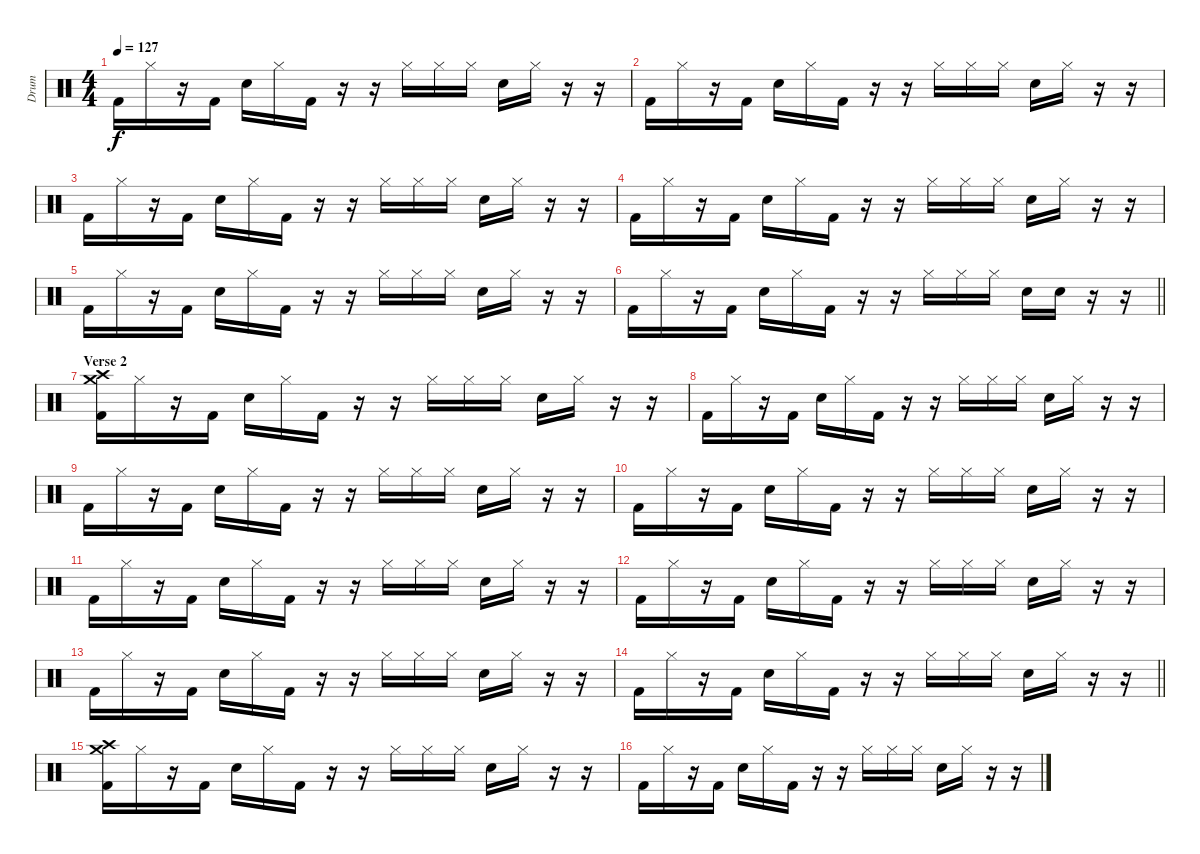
\track ("Drum" "Drum") {instrument percussion}
\staff {score}
\articulation defaults
\ts (4 4)
\tempo 127
\clef neutral
\ks c "Kick (hit) 2".16{dy f} "Hi-Hat (closed)".16
r.16 "Kick (hit) 2".16 "Electric Snare (hit)".16 "Hi-Hat (closed)".16 "Kick (hit) 2".16 r.16 r.16 "Hi-Hat (closed)".16 "Hi-Hat (closed)".16 "Hi-Hat (closed)".16 "Electric Snare (hit)".16 "Hi-Hat (closed)".16 r.16 r.16 |
"Kick (hit) 2".16 "Hi-Hat (closed)".16 r.16 "Kick (hit) 2".16 "Electric Snare (hit)".16 "Hi-Hat (closed)".16 "Kick (hit) 2".16 r.16 r.16 "Hi-Hat (closed)".16 "Hi-Hat (closed)".16 "Hi-Hat (closed)".16 "Electric Snare (hit)".16 "Hi-Hat (closed)".16 r.16 r.16 |
"Kick (hit) 2".16 "Hi-Hat (closed)".16 r.16 "Kick (hit) 2".16 "Electric Snare (hit)".16 "Hi-Hat (closed)".16 "Kick (hit) 2".16 r.16 r.16 "Hi-Hat (closed)".16 "Hi-Hat (closed)".16 "Hi-Hat (closed)".16 "Electric Snare (hit)".16 "Hi-Hat (closed)".16 r.16 r.16 |
"Kick (hit) 2".16 "Hi-Hat (closed)".16 r.16 "Kick (hit) 2".16 "Electric Snare (hit)".16 "Hi-Hat (closed)".16 "Kick (hit) 2".16 r.16 r.16 "Hi-Hat (closed)".16 "Hi-Hat (closed)".16 "Hi-Hat (closed)".16 "Electric Snare (hit)".16 "Hi-Hat (closed)".16 r.16 r.16 |
"Kick (hit) 2".16 "Hi-Hat (closed)".16 r.16 "Kick (hit) 2".16 "Electric Snare (hit)".16 "Hi-Hat (closed)".16 "Kick (hit) 2".16 r.16 r.16 "Hi-Hat (closed)".16 "Hi-Hat (closed)".16 "Hi-Hat (closed)".16 "Electric Snare (hit)".16 "Hi-Hat (closed)".16 r.16 r.16 |
\barLineRight lightlight "Kick (hit) 2".16 "Hi-Hat (closed)".16
r.16 "Kick (hit) 2".16 "Electric Snare (hit)".16 "Hi-Hat (closed)".16 "Kick (hit) 2".16 r.16 r.16 "Hi-Hat (closed)".16 "Hi-Hat (closed)".16 "Hi-Hat (closed)".16 "Electric Snare (hit)".16 "Electric Snare (hit)".16 r.16 r.16 |
\section ("" "Verse 2")
("Crash medium (hit)" "Crash high (hit)" "Kick (hit) 2").16 "Hi-Hat (closed)".16 r.16 "Kick (hit) 2".16 "Electric Snare (hit)".16 "Hi-Hat (closed)".16 "Kick (hit) 2".16 r.16 r.16 "Hi-Hat (closed)".16 "Hi-Hat (closed)".16 "Hi-Hat (closed)".16 "Electric Snare (hit)".16 "Hi-Hat (closed)".16 r.16 r.16 |
"Kick (hit) 2".16 "Hi-Hat (closed)".16 r.16 "Kick (hit) 2".16 "Electric Snare (hit)".16 "Hi-Hat (closed)".16 "Kick (hit) 2".16 r.16 r.16 "Hi-Hat (closed)".16 "Hi-Hat (closed)".16 "Hi-Hat (closed)".16 "Electric Snare (hit)".16 "Hi-Hat (closed)".16 r.16 r.16 |
"Kick (hit) 2".16 "Hi-Hat (closed)".16 r.16 "Kick (hit) 2".16 "Electric Snare (hit)".16 "Hi-Hat (closed)".16 "Kick (hit) 2".16 r.16 r.16 "Hi-Hat (closed)".16 "Hi-Hat (closed)".16 "Hi-Hat (closed)".16 "Electric Snare (hit)".16 "Hi-Hat (closed)".16 r.16 r.16 |
"Kick (hit) 2".16 "Hi-Hat (closed)".16 r.16 "Kick (hit) 2".16 "Electric Snare (hit)".16 "Hi-Hat (closed)".16 "Kick (hit) 2".16 r.16 r.16 "Hi-Hat (closed)".16 "Hi-Hat (closed)".16 "Hi-Hat (closed)".16 "Electric Snare (hit)".16 "Hi-Hat (closed)".16 r.16 r.16 |
"Kick (hit) 2".16 "Hi-Hat (closed)".16 r.16 "Kick (hit) 2".16 "Electric Snare (hit)".16 "Hi-Hat (closed)".16 "Kick (hit) 2".16 r.16 r.16 "Hi-Hat (closed)".16 "Hi-Hat (closed)".16 "Hi-Hat (closed)".16 "Electric Snare (hit)".16 "Hi-Hat (closed)".16 r.16 r.16 |
"Kick (hit) 2".16 "Hi-Hat (closed)".16 r.16 "Kick (hit) 2".16 "Electric Snare (hit)".16 "Hi-Hat (closed)".16 "Kick (hit) 2".16 r.16 r.16 "Hi-Hat (closed)".16 "Hi-Hat (closed)".16 "Hi-Hat (closed)".16 "Electric Snare (hit)".16 "Hi-Hat (closed)".16 r.16 r.16 |
"Kick (hit) 2".16 "Hi-Hat (closed)".16 r.16 "Kick (hit) 2".16 "Electric Snare (hit)".16 "Hi-Hat (closed)".16 "Kick (hit) 2".16 r.16 r.16 "Hi-Hat (closed)".16 "Hi-Hat (closed)".16 "Hi-Hat (closed)".16 "Electric Snare (hit)".16 "Hi-Hat (closed)".16 r.16 r.16 |
\barLineRight lightlight "Kick (hit) 2".16 "Hi-Hat (closed)".16
r.16 "Kick (hit) 2".16 "Electric Snare (hit)".16 "Hi-Hat (closed)".16 "Kick (hit) 2".16 r.16 r.16 "Hi-Hat (closed)".16 "Hi-Hat (closed)".16 "Hi-Hat (closed)".16 "Electric Snare (hit)".16 "Hi-Hat (closed)".16 r.16 r.16 |
("Crash medium (hit)" "Crash high (hit)" "Kick (hit) 2").16 "Hi-Hat (closed)".16 r.16 "Kick (hit) 2".16 "Electric Snare (hit)".16 "Hi-Hat (closed)".16 "Kick (hit) 2".16 r.16 r.16 "Hi-Hat (closed)".16 "Hi-Hat (closed)".16 "Hi-Hat (closed)".16 "Electric Snare (hit)".16 "Hi-Hat (closed)".16 r.16 r.16 |
"Kick (hit) 2".16 "Hi-Hat (closed)".16 r.16 "Kick (hit) 2".16 "Electric Snare (hit)".16 "Hi-Hat (closed)".16 "Kick (hit) 2".16 r.16 r.16 "Hi-Hat (closed)".16 "Hi-Hat (closed)".16 "Hi-Hat (closed)".16 "Electric Snare (hit)".16 "Hi-Hat (closed)".16 r.16 r.16
